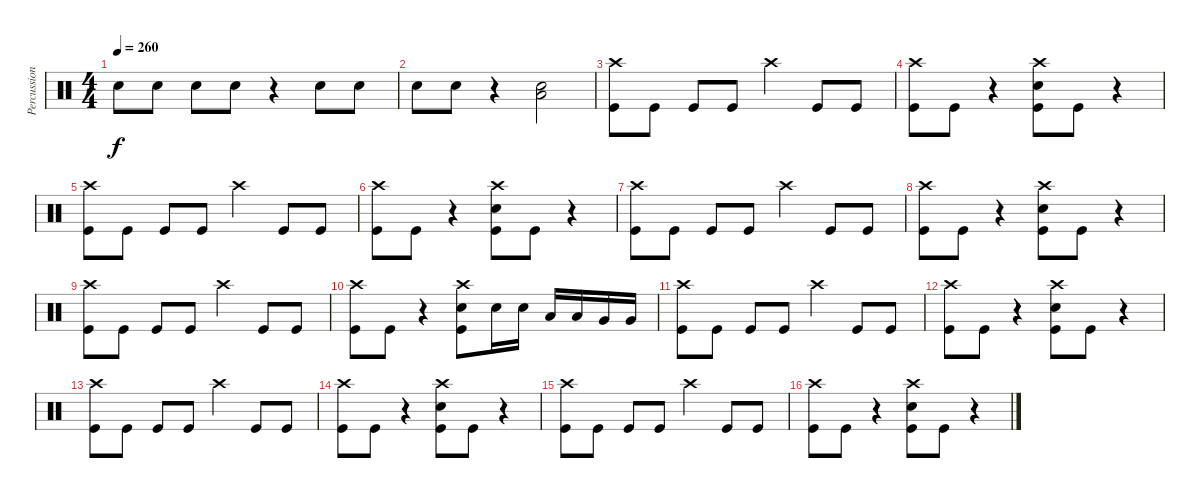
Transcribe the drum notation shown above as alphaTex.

\track ("Percussion" "Percussion") {instrument percussion}
\staff {score}
\articulation defaults
\ts (4 4)
\tempo 260
\clef neutral
\ks c "Snare (hit) 2".8{dy f} "Snare (hit) 2".8 "Snare (hit) 2".8 "Snare (hit) 2".8
r.4 "Snare (hit) 2".8 "Snare (hit) 2".8 |
"Snare (hit) 2".8 "Snare (hit) 2".8 r.4 ("Low Tom (hit)" "Snare (hit) 2").2 |
("Kick (hit)" "Crash high (hit)").8 "Kick (hit)".8 "Kick (hit)".8 "Kick (hit)".8 "Crash high (hit)".4 "Kick (hit)".8 "Kick (hit)".8 |
("Kick (hit)" "Crash high (hit)").8 "Kick (hit)".8 r.4 ("Kick (hit)" "Snare (hit) 2" "Crash high (hit)").8 "Kick (hit)".8 r.4 |
("Kick (hit)" "Crash high (hit)").8 "Kick (hit)".8 "Kick (hit)".8 "Kick (hit)".8 "Crash high (hit)".4 "Kick (hit)".8 "Kick (hit)".8 |
("Kick (hit)" "Crash high (hit)").8 "Kick (hit)".8 r.4 ("Kick (hit)" "Snare (hit) 2" "Crash high (hit)").8 "Kick (hit)".8 r.4 |
("Kick (hit)" "Crash high (hit)").8 "Kick (hit)".8 "Kick (hit)".8 "Kick (hit)".8 "Crash high (hit)".4 "Kick (hit)".8 "Kick (hit)".8 |
("Kick (hit)" "Crash high (hit)").8 "Kick (hit)".8 r.4 ("Kick (hit)" "Snare (hit) 2" "Crash high (hit)").8 "Kick (hit)".8 r.4 |
("Kick (hit)" "Crash high (hit)").8 "Kick (hit)".8 "Kick (hit)".8 "Kick (hit)".8 "Crash high (hit)".4 "Kick (hit)".8 "Kick (hit)".8 |
("Kick (hit)" "Crash high (hit)").8 "Kick (hit)".8 r.4 ("Kick (hit)" "Snare (hit) 2" "Crash high (hit)").8 "Snare (hit) 2".16 "Snare (hit) 2".16 "Low Tom (hit)".16 "Low Tom (hit)".16 "Very Low Tom (hit)".16 "Very Low Tom (hit)".16 |
("Kick (hit)" "Crash high (hit)").8 "Kick (hit)".8 "Kick (hit)".8 "Kick (hit)".8 "Crash high (hit)".4 "Kick (hit)".8 "Kick (hit)".8 |
("Kick (hit)" "Crash high (hit)").8 "Kick (hit)".8 r.4 ("Kick (hit)" "Snare (hit) 2" "Crash high (hit)").8 "Kick (hit)".8 r.4 |
("Kick (hit)" "Crash high (hit)").8 "Kick (hit)".8 "Kick (hit)".8 "Kick (hit)".8 "Crash high (hit)".4 "Kick (hit)".8 "Kick (hit)".8 |
("Kick (hit)" "Crash high (hit)").8 "Kick (hit)".8 r.4 ("Kick (hit)" "Snare (hit) 2" "Crash high (hit)").8 "Kick (hit)".8 r.4 |
("Kick (hit)" "Crash high (hit)").8 "Kick (hit)".8 "Kick (hit)".8 "Kick (hit)".8 "Crash high (hit)".4 "Kick (hit)".8 "Kick (hit)".8 |
("Kick (hit)" "Crash high (hit)").8 "Kick (hit)".8 r.4 ("Kick (hit)" "Snare (hit) 2" "Crash high (hit)").8 "Kick (hit)".8 r.4
